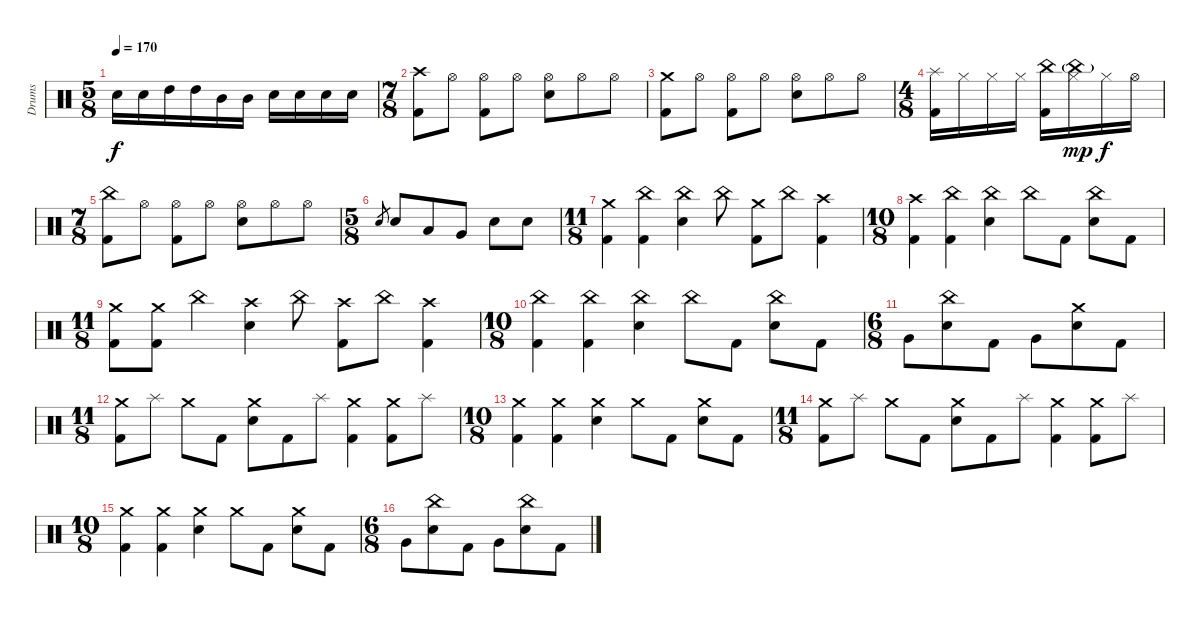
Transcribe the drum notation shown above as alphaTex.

\track ("Drums" "Drums") {instrument percussion}
\staff {score}
\articulation defaults
\ts (5 8)
\tempo 170
\clef neutral
\ks c "Electric Snare (hit)".16{dy f} "Electric Snare (hit)".16{beam merge} "High Tom (hit)".16 "High Tom (hit)".16{beam merge} "Mid Tom (hit)".16 "Mid Tom (hit)".16{beam split} "Electric Snare (hit)".16 "Electric Snare (hit)".16{beam merge} "Electric Snare (hit)".16 "Electric Snare (hit)".16
|
\ts (7 8)
("Crash high (hit)" "Kick (hit) 2").8{beam merge} "Hi-Hat (open)".8{beam split} ("Hi-Hat (open)" "Kick (hit) 2").8{beam merge} "Hi-Hat (open)".8{beam split} ("Hi-Hat (open)" "Electric Snare (hit)").8{beam merge} "Hi-Hat (open)".8{beam merge} "Hi-Hat (open)".8 |
("Crash medium (hit)" "Kick (hit) 2").8{beam merge} "Hi-Hat (open)".8{beam split} ("Hi-Hat (open)" "Kick (hit) 2").8{beam merge} "Hi-Hat (open)".8{beam split} ("Hi-Hat (open)" "Electric Snare (hit)").8{beam merge} "Hi-Hat (open)".8{beam merge} "Hi-Hat (open)".8 |
\ts (4 8)
("Splash (hit)" "Kick (hit) 2").16 "Hi-Hat (closed)".16{beam merge} "Hi-Hat (closed)".16 "Hi-Hat (closed)".16{beam split} ("China (hit)" "Kick (hit) 2").16 ("Hi-Hat (closed)" "China (hit)"{g}).16{dy mp beam merge} "Hi-Hat (closed)".16{dy f} "Hi-Hat (open)".16 |
\ts (7 8)
("China (hit)" "Kick (hit) 2").8{beam merge} "Hi-Hat (open)".8{beam split} ("Hi-Hat (open)" "Kick (hit) 2").8{beam merge} "Hi-Hat (open)".8{beam split} ("Hi-Hat (open)" "Electric Snare (hit)").8{beam merge} "Hi-Hat (open)".8{beam merge} "Hi-Hat (open)".8 |
\ts (5 8)
"Electric Snare (hit)".8{gr} "Electric Snare (hit)".8{beam merge} "Low Tom (hit)".8{beam merge} "Very Low Tom (hit)".8{beam split} "Electric Snare (hit)".8{beam merge} "Electric Snare (hit)".8 |
\ts (11 8)
("Crash medium (hit)" "Kick (hit) 2").4 ("China (hit)" "Kick (hit) 2").4 ("China (hit)" "Electric Snare (hit)").4 "China (hit)".8{beam split} ("Crash medium (hit)" "Kick (hit) 2").8{beam merge} "China (hit)".8 ("Crash high (hit)" "Kick (hit) 2").4 |
\ts (10 8)
("Crash high (hit)" "Kick (hit) 2").4 ("China (hit)" "Kick (hit) 2").4 ("China (hit)" "Electric Snare (hit)").4 "China (hit)".8{beam merge} "Kick (hit) 2".8{beam split} ("China (hit)" "Electric Snare (hit)").8{beam merge} "Kick (hit) 2".8 |
\ts (11 8)
("Crash medium (hit)" "Kick (hit) 2").8{beam merge} ("Crash medium (hit)" "Kick (hit) 2").8 "China (hit)".4 ("Crash high (hit)" "Electric Snare (hit)").4 "China (hit)".8{beam split} ("Crash high (hit)" "Kick (hit) 2").8{beam merge} "China (hit)".8 ("Crash high (hit)" "Kick (hit) 2").4 |
\ts (10 8)
("China (hit)" "Kick (hit) 2").4 ("China (hit)" "Kick (hit) 2").4 ("China (hit)" "Electric Snare (hit)").4 "China (hit)".8{beam merge} "Kick (hit) 2".8{beam split} ("China (hit)" "Electric Snare (hit)").8{beam merge} "Kick (hit) 2".8 |
\ts (6 8)
"Very Low Tom (hit)".8 ("China (hit)" "Electric Snare (hit)").8 "Kick (hit) 2".8{beam split} "Very Low Tom (hit)".8 ("Crash medium (hit)" "Electric Snare (hit)").8 "Kick (hit) 2".8 |
\ts (11 8)
("Crash medium (hit)" "Kick (hit) 2").8{beam merge} "Splash (hit)".8{beam split} "Crash medium (hit)".8{beam merge} "Kick (hit) 2".8{beam split} ("Crash medium (hit)" "Electric Snare (hit)").8{beam merge} "Kick (hit) 2".8{beam merge} "Splash (hit)".8 ("Crash medium (hit)" "Kick (hit) 2").4 ("Crash medium (hit)" "Kick (hit) 2").8{beam merge} "Splash (hit)".8 |
\ts (10 8)
("Crash medium (hit)" "Kick (hit) 2").4 ("Crash medium (hit)" "Kick (hit) 2").4 ("Crash medium (hit)" "Electric Snare (hit)").4 "Crash medium (hit)".8{beam merge} "Kick (hit) 2".8{beam split} ("Crash medium (hit)" "Electric Snare (hit)").8{beam merge} "Kick (hit) 2".8 |
\ts (11 8)
("Crash medium (hit)" "Kick (hit) 2").8{beam merge} "Splash (hit)".8{beam split} "Crash medium (hit)".8{beam merge} "Kick (hit) 2".8{beam split} ("Crash medium (hit)" "Electric Snare (hit)").8{beam merge} "Kick (hit) 2".8{beam merge} "Splash (hit)".8 ("Crash medium (hit)" "Kick (hit) 2").4 ("Crash medium (hit)" "Kick (hit) 2").8{beam merge} "Splash (hit)".8 |
\ts (10 8)
("Crash medium (hit)" "Kick (hit) 2").4 ("Crash medium (hit)" "Kick (hit) 2").4 ("Crash medium (hit)" "Electric Snare (hit)").4 "Crash medium (hit)".8{beam merge} "Kick (hit) 2".8{beam split} ("Crash medium (hit)" "Electric Snare (hit)").8{beam merge} "Kick (hit) 2".8 |
\ts (6 8)
"Very Low Tom (hit)".8 ("China (hit)" "Electric Snare (hit)").8 "Kick (hit) 2".8{beam split} "Very Low Tom (hit)".8 ("China (hit)" "Electric Snare (hit)").8 "Kick (hit) 2".8
